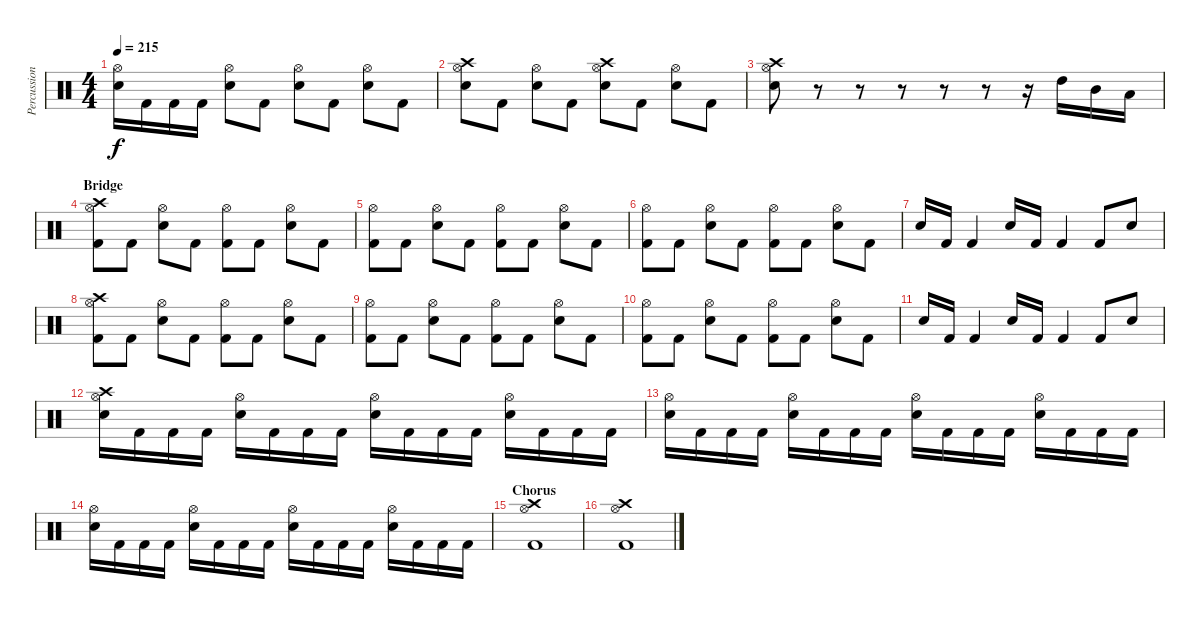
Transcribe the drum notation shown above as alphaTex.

\track ("Percussions" "Percussion") {instrument percussion}
\staff {score}
\articulation defaults
\ts (4 4)
\tempo 215
\clef neutral
\ks c
("Hi-Hat (open)" "Electric Snare (hit)").16{dy f} "Kick (hit) 2".16 "Kick (hit) 2".16 "Kick (hit) 2".16 ("Hi-Hat (open)" "Electric Snare (hit)").8 "Kick (hit) 2".8 ("Hi-Hat (open)" "Electric Snare (hit)").8 "Kick (hit) 2".8 ("Hi-Hat (open)" "Electric Snare (hit)").8 "Kick (hit) 2".8 |
("Crash high (hit)" "Hi-Hat (open)" "Electric Snare (hit)").8 "Kick (hit) 2".8 ("Hi-Hat (open)" "Electric Snare (hit)").8 "Kick (hit) 2".8 ("Crash high (hit)" "Hi-Hat (open)" "Electric Snare (hit)").8 "Kick (hit) 2".8 ("Hi-Hat (open)" "Electric Snare (hit)").8 "Kick (hit) 2".8 |
("Crash high (hit)" "Hi-Hat (open)" "Electric Snare (hit)").8 r.8 r.8 r.8 r.8 r.8 r.16 "High Tom (hit)".16 "Mid Tom (hit)".16 "Low Tom (hit)".16 |
\section ("" "Bridge")
("Crash high (hit)" "Hi-Hat (open)" "Kick (hit) 2").8 "Kick (hit) 2".8 ("Hi-Hat (open)" "Electric Snare (hit)").8 "Kick (hit) 2".8 ("Hi-Hat (open)" "Kick (hit) 2").8 "Kick (hit) 2".8 ("Hi-Hat (open)" "Electric Snare (hit)").8 "Kick (hit) 2".8 |
("Hi-Hat (open)" "Kick (hit) 2").8 "Kick (hit) 2".8 ("Hi-Hat (open)" "Electric Snare (hit)").8 "Kick (hit) 2".8 ("Hi-Hat (open)" "Kick (hit) 2").8 "Kick (hit) 2".8 ("Hi-Hat (open)" "Electric Snare (hit)").8 "Kick (hit) 2".8 |
("Hi-Hat (open)" "Kick (hit) 2").8 "Kick (hit) 2".8 ("Hi-Hat (open)" "Electric Snare (hit)").8 "Kick (hit) 2".8 ("Hi-Hat (open)" "Kick (hit) 2").8 "Kick (hit) 2".8 ("Hi-Hat (open)" "Electric Snare (hit)").8 "Kick (hit) 2".8 |
"Electric Snare (hit)".16 "Kick (hit) 2".16 "Kick (hit) 2".4 "Electric Snare (hit)".16 "Kick (hit) 2".16 "Kick (hit) 2".4 "Kick (hit) 2".8 "Electric Snare (hit)".8 |
("Crash high (hit)" "Hi-Hat (open)" "Kick (hit) 2").8 "Kick (hit) 2".8 ("Hi-Hat (open)" "Electric Snare (hit)").8 "Kick (hit) 2".8 ("Hi-Hat (open)" "Kick (hit) 2").8 "Kick (hit) 2".8 ("Hi-Hat (open)" "Electric Snare (hit)").8 "Kick (hit) 2".8 |
("Hi-Hat (open)" "Kick (hit) 2").8 "Kick (hit) 2".8 ("Hi-Hat (open)" "Electric Snare (hit)").8 "Kick (hit) 2".8 ("Hi-Hat (open)" "Kick (hit) 2").8 "Kick (hit) 2".8 ("Hi-Hat (open)" "Electric Snare (hit)").8 "Kick (hit) 2".8 |
("Hi-Hat (open)" "Kick (hit) 2").8 "Kick (hit) 2".8 ("Hi-Hat (open)" "Electric Snare (hit)").8 "Kick (hit) 2".8 ("Hi-Hat (open)" "Kick (hit) 2").8 "Kick (hit) 2".8 ("Hi-Hat (open)" "Electric Snare (hit)").8 "Kick (hit) 2".8 |
"Electric Snare (hit)".16 "Kick (hit) 2".16 "Kick (hit) 2".4 "Electric Snare (hit)".16 "Kick (hit) 2".16 "Kick (hit) 2".4 "Kick (hit) 2".8 "Electric Snare (hit)".8 |
("Crash high (hit)" "Hi-Hat (open)" "Electric Snare (hit)").16 "Kick (hit) 2".16 "Kick (hit) 2".16 "Kick (hit) 2".16 ("Hi-Hat (open)" "Electric Snare (hit)").16 "Kick (hit) 2".16 "Kick (hit) 2".16 "Kick (hit) 2".16 ("Hi-Hat (open)" "Electric Snare (hit)").16 "Kick (hit) 2".16 "Kick (hit) 2".16 "Kick (hit) 2".16 ("Hi-Hat (open)" "Electric Snare (hit)").16 "Kick (hit) 2".16 "Kick (hit) 2".16 "Kick (hit) 2".16 |
("Hi-Hat (open)" "Electric Snare (hit)").16 "Kick (hit) 2".16 "Kick (hit) 2".16 "Kick (hit) 2".16 ("Hi-Hat (open)" "Electric Snare (hit)").16 "Kick (hit) 2".16 "Kick (hit) 2".16 "Kick (hit) 2".16 ("Hi-Hat (open)" "Electric Snare (hit)").16 "Kick (hit) 2".16 "Kick (hit) 2".16 "Kick (hit) 2".16 ("Hi-Hat (open)" "Electric Snare (hit)").16 "Kick (hit) 2".16 "Kick (hit) 2".16 "Kick (hit) 2".16 |
("Hi-Hat (open)" "Electric Snare (hit)").16 "Kick (hit) 2".16 "Kick (hit) 2".16 "Kick (hit) 2".16 ("Hi-Hat (open)" "Electric Snare (hit)").16 "Kick (hit) 2".16 "Kick (hit) 2".16 "Kick (hit) 2".16 ("Hi-Hat (open)" "Electric Snare (hit)").16 "Kick (hit) 2".16 "Kick (hit) 2".16 "Kick (hit) 2".16 ("Hi-Hat (open)" "Electric Snare (hit)").16 "Kick (hit) 2".16 "Kick (hit) 2".16 "Kick (hit) 2".16 |
\section ("" "Chorus")
("Crash high (hit)" "Hi-Hat (open)" "Kick (hit) 2").1 |
("Crash high (hit)" "Hi-Hat (open)" "Kick (hit) 2").1
